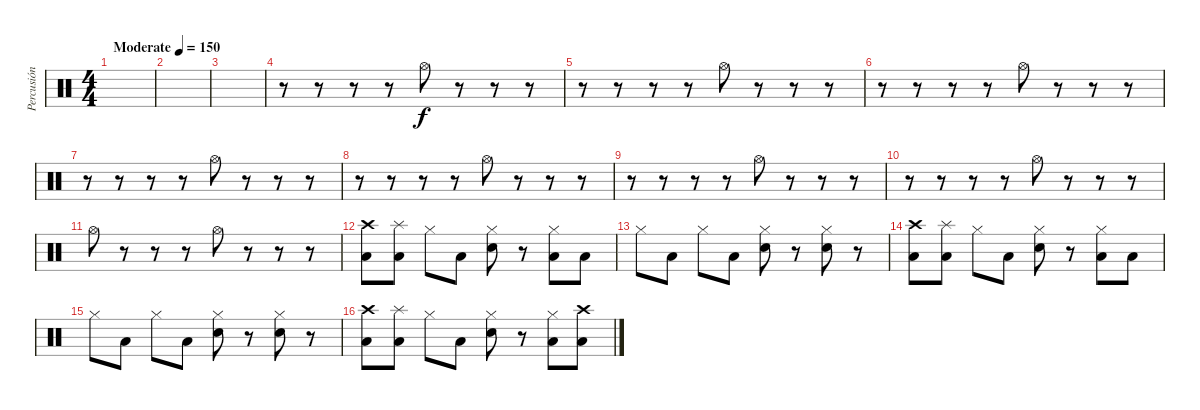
\track ("Percusión" "Percusión") {instrument percussion}
\staff {score}
\articulation defaults
\ts (4 4)
\tempo (150 "Moderate")
\clef neutral
\ks c
|
|
|
r.8 r.8 r.8 r.8 "Hi-Hat (open)".8 r.8 r.8 r.8 |
r.8 r.8 r.8 r.8 "Hi-Hat (open)".8 r.8 r.8 r.8 |
r.8 r.8 r.8 r.8 "Hi-Hat (open)".8 r.8 r.8 r.8 |
r.8 r.8 r.8 r.8 "Hi-Hat (open)".8 r.8 r.8 r.8 |
r.8 r.8 r.8 r.8 "Hi-Hat (open)".8 r.8 r.8 r.8 |
r.8 r.8 r.8 r.8 "Hi-Hat (open)".8 r.8 r.8 r.8 |
r.8 r.8 r.8 r.8 "Hi-Hat (open)".8 r.8 r.8 r.8 |
"Hi-Hat (open)".8 r.8 r.8 r.8 "Hi-Hat (open)".8 r.8 r.8 r.8 |
("Crash high (hit)" "Low Tom (hit)").8 ("Splash (hit)" "Low Tom (hit)").8 "Hi-Hat (closed)".8 "Low Tom (hit)".8 ("Hi-Hat (closed)" "Snare (hit) 2").8 r.8 ("Hi-Hat (closed)" "Low Tom (hit)").8 "Low Tom (hit)".8 |
"Hi-Hat (closed)".8 "Low Tom (hit)".8 "Hi-Hat (closed)".8 "Low Tom (hit)".8 ("Hi-Hat (closed)" "Snare (hit) 2").8 r.8 ("Hi-Hat (closed)" "Snare (hit) 2").8 r.8 |
("Crash high (hit)" "Low Tom (hit)").8 ("Splash (hit)" "Low Tom (hit)").8 "Hi-Hat (closed)".8 "Low Tom (hit)".8 ("Hi-Hat (closed)" "Snare (hit) 2").8 r.8 ("Hi-Hat (closed)" "Low Tom (hit)").8 "Low Tom (hit)".8 |
"Hi-Hat (closed)".8 "Low Tom (hit)".8 "Hi-Hat (closed)".8 "Low Tom (hit)".8 ("Hi-Hat (closed)" "Snare (hit) 2").8 r.8 ("Hi-Hat (closed)" "Snare (hit) 2").8 r.8 |
("Crash high (hit)" "Low Tom (hit)").8 ("Splash (hit)" "Low Tom (hit)").8 "Hi-Hat (closed)".8 "Low Tom (hit)".8 ("Hi-Hat (closed)" "Snare (hit) 2").8 r.8 ("Hi-Hat (closed)" "Low Tom (hit)").8 ("Crash high (hit)" "Low Tom (hit)").8
